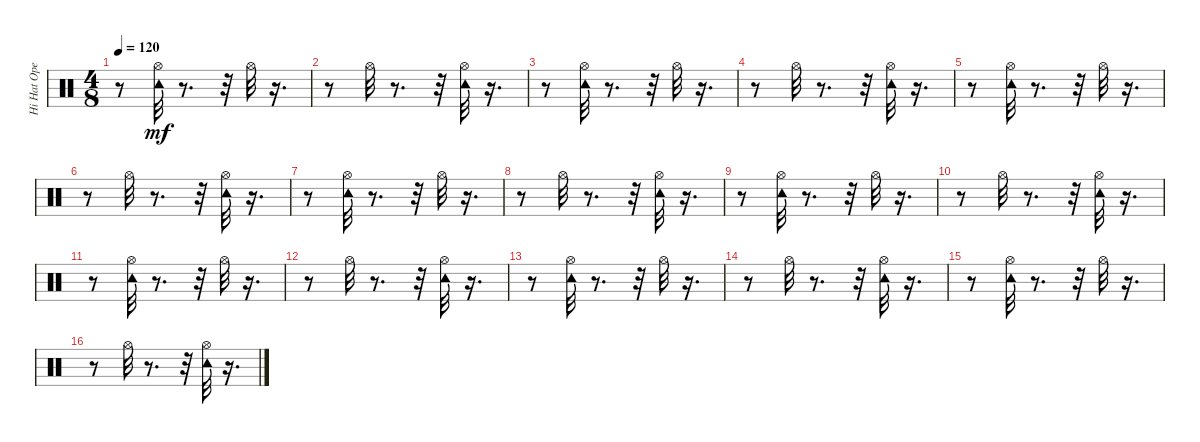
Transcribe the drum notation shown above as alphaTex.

\track ("Hi Hat Open" "Hi Hat Ope") {instrument percussion}
\staff {score}
\articulation defaults
\ts (4 8)
\tempo 120
\clef neutral
\ks c
r.8{dy mf} ("Tambourine (hit)" "Hi-Hat (open)").32 r.8{d} r.32 "Hi-Hat (open)".32 r.16{d} |
r.8 "Hi-Hat (open)".32 r.8{d} r.32 ("Tambourine (hit)" "Hi-Hat (open)").32 r.16{d} |
r.8 ("Tambourine (hit)" "Hi-Hat (open)").32 r.8{d} r.32 "Hi-Hat (open)".32 r.16{d} |
r.8 "Hi-Hat (open)".32 r.8{d} r.32 ("Tambourine (hit)" "Hi-Hat (open)").32 r.16{d} |
r.8 ("Tambourine (hit)" "Hi-Hat (open)").32 r.8{d} r.32 "Hi-Hat (open)".32 r.16{d} |
r.8 "Hi-Hat (open)".32 r.8{d} r.32 ("Tambourine (hit)" "Hi-Hat (open)").32 r.16{d} |
r.8 ("Tambourine (hit)" "Hi-Hat (open)").32 r.8{d} r.32 "Hi-Hat (open)".32 r.16{d} |
r.8 "Hi-Hat (open)".32 r.8{d} r.32 ("Tambourine (hit)" "Hi-Hat (open)").32 r.16{d} |
r.8 ("Tambourine (hit)" "Hi-Hat (open)").32 r.8{d} r.32 "Hi-Hat (open)".32 r.16{d} |
r.8 "Hi-Hat (open)".32 r.8{d} r.32 ("Tambourine (hit)" "Hi-Hat (open)").32 r.16{d} |
r.8 ("Tambourine (hit)" "Hi-Hat (open)").32 r.8{d} r.32 "Hi-Hat (open)".32 r.16{d} |
r.8 "Hi-Hat (open)".32 r.8{d} r.32 ("Tambourine (hit)" "Hi-Hat (open)").32 r.16{d} |
r.8 ("Tambourine (hit)" "Hi-Hat (open)").32 r.8{d} r.32 "Hi-Hat (open)".32 r.16{d} |
r.8 "Hi-Hat (open)".32 r.8{d} r.32 ("Tambourine (hit)" "Hi-Hat (open)").32 r.16{d} |
r.8 ("Tambourine (hit)" "Hi-Hat (open)").32 r.8{d} r.32 "Hi-Hat (open)".32 r.16{d} |
r.8 "Hi-Hat (open)".32 r.8{d} r.32 ("Tambourine (hit)" "Hi-Hat (open)").32 r.16{d}
